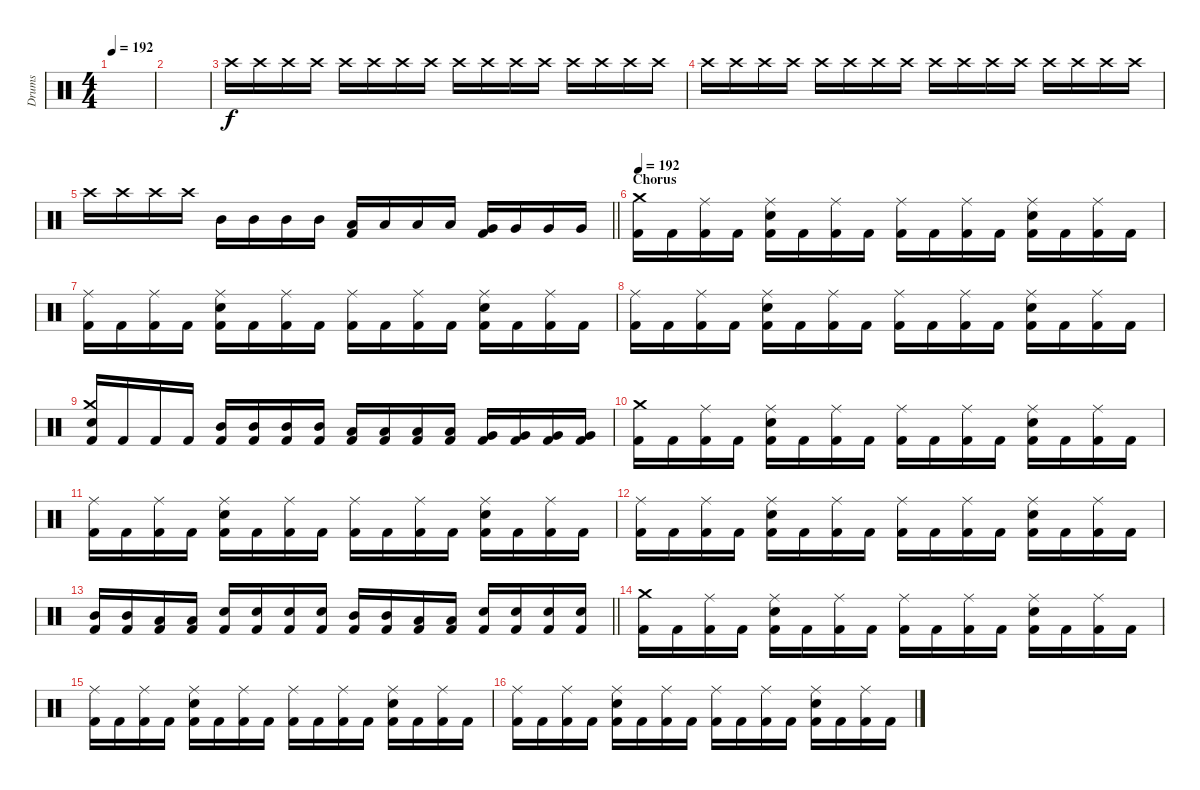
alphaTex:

\track ("Drums" "Drums") {instrument percussion}
\staff {score}
\articulation defaults
\ts (4 4)
\tempo 192
\clef neutral
\ks c
|
|
"Crash high (hit)".16{volume 16} "Crash high (hit)".16 "Crash high (hit)".16 "Crash high (hit)".16 "Crash high (hit)".16 "Crash high (hit)".16 "Crash high (hit)".16 "Crash high (hit)".16 "Crash high (hit)".16 "Crash high (hit)".16 "Crash high (hit)".16 "Crash high (hit)".16 "Crash high (hit)".16 "Crash high (hit)".16 "Crash high (hit)".16 "Crash high (hit)".16 |
"Crash high (hit)".16 "Crash high (hit)".16 "Crash high (hit)".16 "Crash high (hit)".16 "Crash high (hit)".16 "Crash high (hit)".16 "Crash high (hit)".16{volume 16} "Crash high (hit)".16 "Crash high (hit)".16 "Crash high (hit)".16 "Crash high (hit)".16 "Crash high (hit)".16 "Crash high (hit)".16 "Crash high (hit)".16 "Crash high (hit)".16 "Crash high (hit)".16 |
\barLineRight lightlight "Crash high (hit)".16 "Crash high (hit)".16 "Crash high (hit)".16 "Crash high (hit)".16 "Mid Tom (hit)".16 "Mid Tom (hit)".16 "Mid Tom (hit)".16 "Mid Tom (hit)".16
("Kick (hit) 2" "Low Tom (hit)").16 "Low Tom (hit)".16 "Low Tom (hit)".16 "Low Tom (hit)".16 ("Kick (hit) 2" "Very Low Tom (hit)").16 "Very Low Tom (hit)".16 "Very Low Tom (hit)".16 "Very Low Tom (hit)".16 |
\section ("" "Chorus")
\tempo 192
("Kick (hit) 2" "Crash medium (hit)").16 "Kick (hit) 2".16 ("Kick (hit) 2" "Ride (middle)").16 "Kick (hit) 2".16 ("Kick (hit) 2" "Snare (hit) 2" "Ride (middle)").16 "Kick (hit) 2".16 ("Kick (hit) 2" "Ride (middle)").16 "Kick (hit) 2".16 ("Kick (hit) 2" "Ride (middle)").16 "Kick (hit) 2".16 ("Kick (hit) 2" "Ride (middle)").16 "Kick (hit) 2".16 ("Kick (hit) 2" "Snare (hit) 2" "Ride (middle)").16 "Kick (hit) 2".16 ("Kick (hit) 2" "Ride (middle)").16 "Kick (hit) 2".16 |
("Kick (hit) 2" "Ride (middle)").16 "Kick (hit) 2".16 ("Kick (hit) 2" "Ride (middle)").16 "Kick (hit) 2".16 ("Kick (hit) 2" "Snare (hit) 2" "Ride (middle)").16 "Kick (hit) 2".16 ("Kick (hit) 2" "Ride (middle)").16 "Kick (hit) 2".16 ("Kick (hit) 2" "Ride (middle)").16 "Kick (hit) 2".16 ("Kick (hit) 2" "Ride (middle)").16 "Kick (hit) 2".16 ("Kick (hit) 2" "Snare (hit) 2" "Ride (middle)").16 "Kick (hit) 2".16 ("Kick (hit) 2" "Ride (middle)").16 "Kick (hit) 2".16 |
("Kick (hit) 2" "Ride (middle)").16 "Kick (hit) 2".16 ("Kick (hit) 2" "Ride (middle)").16 "Kick (hit) 2".16 ("Kick (hit) 2" "Snare (hit) 2" "Ride (middle)").16 "Kick (hit) 2".16 ("Kick (hit) 2" "Ride (middle)").16 "Kick (hit) 2".16 ("Kick (hit) 2" "Ride (middle)").16 "Kick (hit) 2".16 ("Kick (hit) 2" "Ride (middle)").16 "Kick (hit) 2".16 ("Kick (hit) 2" "Snare (hit) 2" "Ride (middle)").16 "Kick (hit) 2".16 ("Kick (hit) 2" "Ride (middle)").16 "Kick (hit) 2".16 |
("Kick (hit) 2" "Snare (hit) 2" "Crash medium (hit)").16 "Kick (hit) 2".16 "Kick (hit) 2".16 "Kick (hit) 2".16 ("Kick (hit) 2" "Mid Tom (hit)").16 ("Kick (hit) 2" "Mid Tom (hit)").16 ("Kick (hit) 2" "Mid Tom (hit)").16 ("Kick (hit) 2" "Mid Tom (hit)").16 ("Kick (hit) 2" "Low Tom (hit)").16 ("Kick (hit) 2" "Low Tom (hit)").16 ("Kick (hit) 2" "Low Tom (hit)").16 ("Kick (hit) 2" "Low Tom (hit)").16 ("Kick (hit) 2" "Very Low Tom (hit)").16 ("Kick (hit) 2" "Very Low Tom (hit)").16 ("Kick (hit) 2" "Very Low Tom (hit)").16 ("Kick (hit) 2" "Very Low Tom (hit)").16 |
("Kick (hit) 2" "Crash medium (hit)").16 "Kick (hit) 2".16 ("Kick (hit) 2" "Ride (middle)").16 "Kick (hit) 2".16 ("Kick (hit) 2" "Snare (hit) 2" "Ride (middle)").16 "Kick (hit) 2".16 ("Kick (hit) 2" "Ride (middle)").16 "Kick (hit) 2".16 ("Kick (hit) 2" "Ride (middle)").16 "Kick (hit) 2".16 ("Kick (hit) 2" "Ride (middle)").16 "Kick (hit) 2".16 ("Kick (hit) 2" "Snare (hit) 2" "Ride (middle)").16 "Kick (hit) 2".16 ("Kick (hit) 2" "Ride (middle)").16 "Kick (hit) 2".16 |
("Kick (hit) 2" "Ride (middle)").16 "Kick (hit) 2".16 ("Kick (hit) 2" "Ride (middle)").16 "Kick (hit) 2".16 ("Kick (hit) 2" "Snare (hit) 2" "Ride (middle)").16 "Kick (hit) 2".16 ("Kick (hit) 2" "Ride (middle)").16 "Kick (hit) 2".16 ("Kick (hit) 2" "Ride (middle)").16 "Kick (hit) 2".16 ("Kick (hit) 2" "Ride (middle)").16 "Kick (hit) 2".16 ("Kick (hit) 2" "Snare (hit) 2" "Ride (middle)").16 "Kick (hit) 2".16 ("Kick (hit) 2" "Ride (middle)").16 "Kick (hit) 2".16 |
("Kick (hit) 2" "Ride (middle)").16 "Kick (hit) 2".16 ("Kick (hit) 2" "Ride (middle)").16 "Kick (hit) 2".16 ("Kick (hit) 2" "Snare (hit) 2" "Ride (middle)").16 "Kick (hit) 2".16 ("Kick (hit) 2" "Ride (middle)").16 "Kick (hit) 2".16 ("Kick (hit) 2" "Ride (middle)").16 "Kick (hit) 2".16 ("Kick (hit) 2" "Ride (middle)").16 "Kick (hit) 2".16 ("Kick (hit) 2" "Snare (hit) 2" "Ride (middle)").16 "Kick (hit) 2".16 ("Kick (hit) 2" "Ride (middle)").16 "Kick (hit) 2".16 |
\barLineRight lightlight
("Kick (hit) 2" "Mid Tom (hit)").16 ("Kick (hit) 2" "Mid Tom (hit)").16 ("Kick (hit) 2" "Low Tom (hit)").16 ("Kick (hit) 2" "Low Tom (hit)").16 ("Kick (hit) 2" "Snare (hit) 2").16 ("Kick (hit) 2" "Snare (hit) 2").16 ("Kick (hit) 2" "Snare (hit) 2").16 ("Kick (hit) 2" "Snare (hit) 2").16 ("Kick (hit) 2" "Mid Tom (hit)").16 ("Kick (hit) 2" "Mid Tom (hit)").16 ("Kick (hit) 2" "Low Tom (hit)").16 ("Kick (hit) 2" "Low Tom (hit)").16 ("Kick (hit) 2" "Snare (hit) 2").16 ("Kick (hit) 2" "Snare (hit) 2").16 ("Kick (hit) 2" "Snare (hit) 2").16 ("Kick (hit) 2" "Snare (hit) 2").16 |
\section ("" "")
("Kick (hit) 2" "Crash medium (hit)").16 "Kick (hit) 2".16 ("Kick (hit) 2" "Ride (middle)").16 "Kick (hit) 2".16 ("Kick (hit) 2" "Snare (hit) 2" "Ride (middle)").16 "Kick (hit) 2".16 ("Kick (hit) 2" "Ride (middle)").16 "Kick (hit) 2".16 ("Kick (hit) 2" "Ride (middle)").16 "Kick (hit) 2".16 ("Kick (hit) 2" "Ride (middle)").16 "Kick (hit) 2".16 ("Kick (hit) 2" "Snare (hit) 2" "Ride (middle)").16 "Kick (hit) 2".16 ("Kick (hit) 2" "Ride (middle)").16 "Kick (hit) 2".16 |
("Kick (hit) 2" "Ride (middle)").16 "Kick (hit) 2".16 ("Kick (hit) 2" "Ride (middle)").16 "Kick (hit) 2".16 ("Kick (hit) 2" "Snare (hit) 2" "Ride (middle)").16 "Kick (hit) 2".16 ("Kick (hit) 2" "Ride (middle)").16 "Kick (hit) 2".16 ("Kick (hit) 2" "Ride (middle)").16 "Kick (hit) 2".16 ("Kick (hit) 2" "Ride (middle)").16 "Kick (hit) 2".16 ("Kick (hit) 2" "Snare (hit) 2" "Ride (middle)").16 "Kick (hit) 2".16 ("Kick (hit) 2" "Ride (middle)").16 "Kick (hit) 2".16 |
("Kick (hit) 2" "Ride (middle)").16 "Kick (hit) 2".16 ("Kick (hit) 2" "Ride (middle)").16 "Kick (hit) 2".16 ("Kick (hit) 2" "Snare (hit) 2" "Ride (middle)").16 "Kick (hit) 2".16 ("Kick (hit) 2" "Ride (middle)").16 "Kick (hit) 2".16 ("Kick (hit) 2" "Ride (middle)").16 "Kick (hit) 2".16 ("Kick (hit) 2" "Ride (middle)").16 "Kick (hit) 2".16 ("Kick (hit) 2" "Snare (hit) 2" "Ride (middle)").16 "Kick (hit) 2".16 ("Kick (hit) 2" "Ride (middle)").16 "Kick (hit) 2".16
